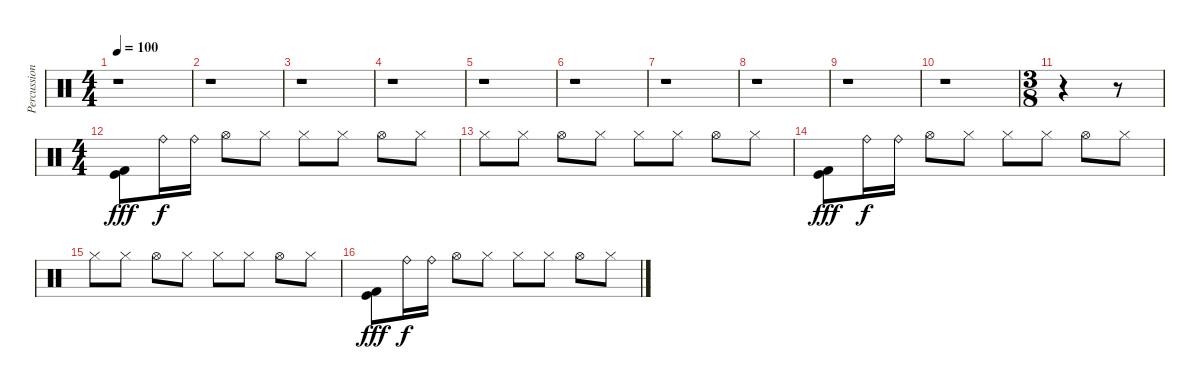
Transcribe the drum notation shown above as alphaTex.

\track ("Percussion" "Percussion") {instrument percussion}
\staff {score}
\articulation defaults
\ts (4 4)
\tempo 100
\clef neutral
\ks c
r.1{dy fff} |
r.1 |
r.1 |
r.1 |
r.1 |
r.1 |
r.1 |
r.1 |
r.1 |
r.1 |
\ts (3 8)
r.4 r.8 |
\ts (4 4)
("Kick (hit) 2" "Kick (hit)").8 "Ride (bell)".16{dy f} "Ride (bell)".16 "Hi-Hat (open)".8 "Hi-Hat (closed)".8 "Hi-Hat (closed)".8 "Hi-Hat (closed)".8 "Hi-Hat (open)".8 "Hi-Hat (closed)".8 |
"Hi-Hat (closed)".8 "Hi-Hat (closed)".8 "Hi-Hat (open)".8 "Hi-Hat (closed)".8 "Hi-Hat (closed)".8 "Hi-Hat (closed)".8 "Hi-Hat (open)".8 "Hi-Hat (closed)".8 |
("Kick (hit) 2" "Kick (hit)").8{dy fff} "Ride (bell)".16{dy f} "Ride (bell)".16 "Hi-Hat (open)".8 "Hi-Hat (closed)".8 "Hi-Hat (closed)".8 "Hi-Hat (closed)".8 "Hi-Hat (open)".8 "Hi-Hat (closed)".8 |
"Hi-Hat (closed)".8 "Hi-Hat (closed)".8 "Hi-Hat (open)".8 "Hi-Hat (closed)".8 "Hi-Hat (closed)".8 "Hi-Hat (closed)".8 "Hi-Hat (open)".8 "Hi-Hat (closed)".8 |
("Kick (hit) 2" "Kick (hit)").8{dy fff} "Ride (bell)".16{dy f} "Ride (bell)".16 "Hi-Hat (open)".8 "Hi-Hat (closed)".8 "Hi-Hat (closed)".8 "Hi-Hat (closed)".8 "Hi-Hat (open)".8 "Hi-Hat (closed)".8
